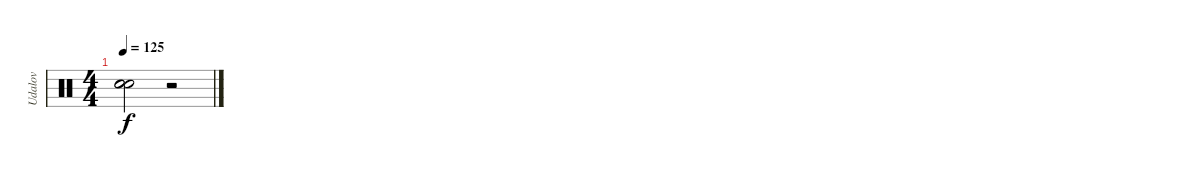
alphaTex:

\track ("Udalov" "Udalov") {instrument percussion}
\staff {score}
\articulation defaults
\ts (4 4)
\tempo 125
\clef neutral
\ks c
("Snare (hit)"{t} "Snare (hit)"{t} "Snare (hit)"{t}).2{dy f} r.2
